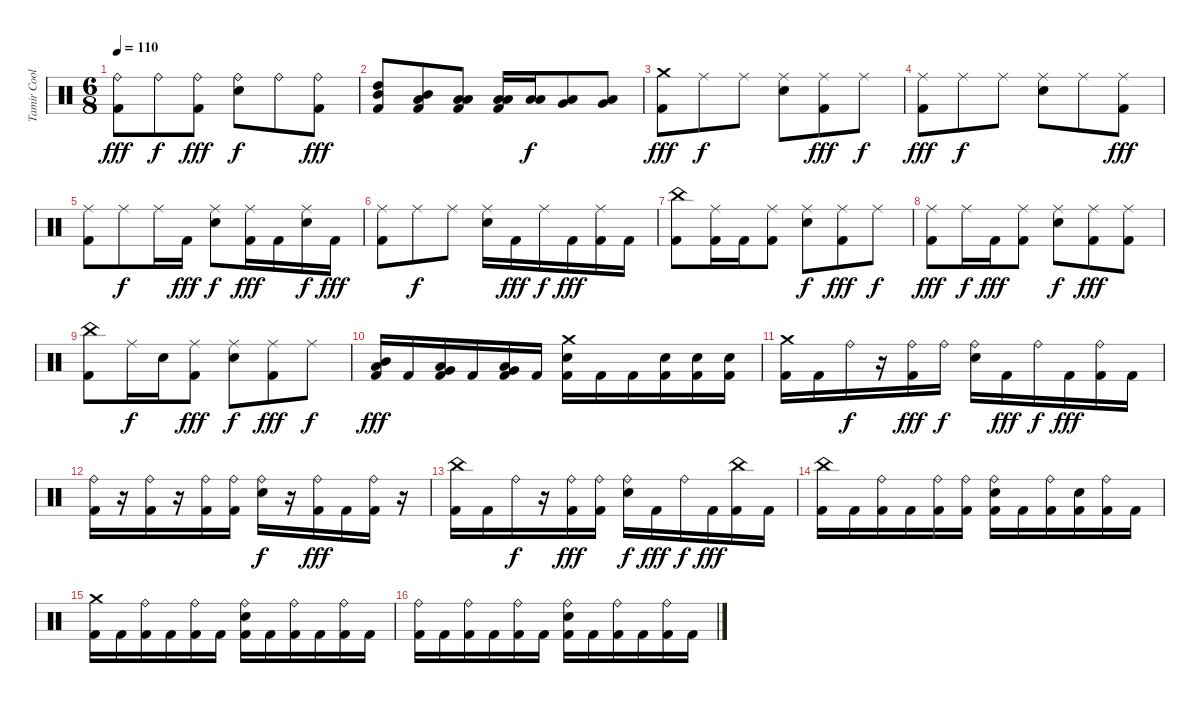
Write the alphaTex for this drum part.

\track ("Tamir Coolberg" "Tamir Cool") {instrument percussion}
\staff {score}
\articulation defaults
\ts (6 8)
\tempo 110
\clef neutral
\ks c
("Ride (bell)" "Kick (hit) 2").8{dy fff} "Ride (bell)".8{dy f} ("Ride (bell)" "Kick (hit) 2").8{dy fff} ("Ride (bell)" "Electric Snare (hit)").8{dy f} "Ride (bell)".8 ("Ride (bell)" "Kick (hit) 2").8{dy fff} |
("High Tom (hit)" "Mid Tom (hit)" "Kick (hit) 2").8 ("Mid Tom (hit)" "Low Tom (hit)" "Kick (hit) 2").8 ("Low Tom (hit)" "Low Tom (hit)" "Kick (hit) 2").8 ("Low Tom (hit)" "Low Tom (hit)" "Kick (hit) 2").16 ("Low Tom (hit)" "Low Tom (hit)").16{dy f} ("Very Low Tom (hit)" "Low Tom (hit)").8 ("Low Floor Tom (hit)" "Very Low Tom (hit)").8 |
("Crash medium (hit)" "Kick (hit) 2").8{dy fff} "Ride (middle)".8{dy f} "Ride (middle)".8 ("Ride (middle)" "Electric Snare (hit)").8 ("Ride (middle)" "Kick (hit) 2").8{dy fff} "Ride (middle)".8{dy f} |
("Ride (middle)" "Kick (hit) 2").8{dy fff} "Ride (middle)".8{dy f} "Ride (middle)".8 ("Ride (middle)" "Electric Snare (hit)").8 "Ride (middle)".8 ("Ride (middle)" "Kick (hit) 2").8{dy fff} |
("Ride (middle)" "Kick (hit) 2").8 "Ride (middle)".8{dy f} "Ride (middle)".16 "Kick (hit) 2".16{dy fff} ("Ride (middle)" "Electric Snare (hit)").8{dy f} ("Ride (middle)" "Kick (hit) 2").16{dy fff} "Kick (hit) 2".16 ("Ride (middle)" "Electric Snare (hit)").16{dy f} "Kick (hit) 2".16{dy fff} |
("Ride (middle)" "Kick (hit) 2").8 "Ride (middle)".8{dy f} "Ride (middle)".8 ("Ride (middle)" "Electric Snare (hit)").16 "Kick (hit) 2".16{dy fff} "Ride (middle)".16{dy f} "Kick (hit) 2".16{dy fff} ("Ride (middle)" "Kick (hit) 2").16 "Kick (hit) 2".16 |
("China (hit)" "Kick (hit) 2").8 ("Ride (middle)" "Kick (hit) 2").16 "Kick (hit) 2".16 ("Ride (middle)" "Kick (hit) 2").8 ("Ride (middle)" "Electric Snare (hit)").8{dy f} ("Ride (middle)" "Kick (hit) 2").8{dy fff} "Ride (middle)".8{dy f} |
("Ride (middle)" "Kick (hit) 2").8{dy fff} "Ride (middle)".16{dy f} "Kick (hit) 2".16{dy fff} ("Ride (middle)" "Kick (hit) 2").8 ("Ride (middle)" "Electric Snare (hit)").8{dy f} ("Ride (middle)" "Kick (hit) 2").8{dy fff} ("Ride (middle)" "Kick (hit) 2").8 |
("China (hit)" "Kick (hit) 2").8 "Ride (middle)".16{dy f} "Electric Snare (hit)".16 ("Ride (middle)" "Kick (hit) 2").8{dy fff} ("Ride (middle)" "Electric Snare (hit)").8{dy f} ("Ride (middle)" "Kick (hit) 2").8{dy fff} "Ride (middle)".8{dy f} |
("Mid Tom (hit)" "Low Tom (hit)" "Kick (hit) 2").16{dy fff} "Kick (hit) 2".16 ("Low Tom (hit)" "Very Low Tom (hit)" "Kick (hit) 2").16 "Kick (hit) 2".16 ("Low Floor Tom (hit)" "Very Low Tom (hit)" "Kick (hit) 2").16 "Kick (hit) 2".16 ("Crash medium (hit)" "Electric Snare (hit)" "Kick (hit) 2").16 "Kick (hit) 2".16 "Kick (hit) 2".16 ("Electric Snare (hit)" "Kick (hit) 2").16 ("Electric Snare (hit)" "Kick (hit) 2").16 ("Electric Snare (hit)" "Kick (hit) 2").16 |
("Crash medium (hit)" "Kick (hit) 2").16 "Kick (hit) 2".16 "Ride (bell)".16{dy f} r.16 ("Ride (bell)" "Kick (hit) 2").16{dy fff} "Ride (bell)".16{dy f} ("Ride (bell)" "Electric Snare (hit)").16 "Kick (hit) 2".16{dy fff} "Ride (bell)".16{dy f} "Kick (hit) 2".16{dy fff} ("Ride (bell)" "Kick (hit) 2").16 "Kick (hit) 2".16 |
("Ride (bell)" "Kick (hit) 2").16 r.16 ("Ride (bell)" "Kick (hit) 2").16 r.16 ("Ride (bell)" "Kick (hit) 2").16 ("Ride (bell)" "Kick (hit) 2").16 ("Ride (bell)" "Electric Snare (hit)").16{dy f} r.16 ("Ride (bell)" "Kick (hit) 2").16{dy fff} "Kick (hit) 2".16 ("Ride (bell)" "Kick (hit) 2").16 r.16 |
("China (hit)" "Kick (hit) 2").16 "Kick (hit) 2".16 "Ride (bell)".16{dy f} r.16 ("Ride (bell)" "Kick (hit) 2").16{dy fff} ("Ride (bell)" "Kick (hit) 2").16 ("Ride (bell)" "Electric Snare (hit)").16{dy f} "Kick (hit) 2".16{dy fff} "Ride (bell)".16{dy f} "Kick (hit) 2".16{dy fff} ("China (hit)" "Kick (hit) 2").16 "Kick (hit) 2".16 |
("China (hit)" "Kick (hit) 2").16 "Kick (hit) 2".16 ("Ride (bell)" "Kick (hit) 2").16 "Kick (hit) 2".16 ("Ride (bell)" "Kick (hit) 2").16 ("Ride (bell)" "Kick (hit) 2").16 ("Ride (bell)" "Electric Snare (hit)" "Kick (hit) 2").16 "Kick (hit) 2".16 ("Ride (bell)" "Kick (hit) 2").16 ("Electric Snare (hit)" "Kick (hit) 2").16 ("Ride (bell)" "Kick (hit) 2").16 "Kick (hit) 2".16 |
("Crash medium (hit)" "Kick (hit) 2").16 "Kick (hit) 2".16 ("Ride (bell)" "Kick (hit) 2").16 "Kick (hit) 2".16 ("Ride (bell)" "Kick (hit) 2").16 "Kick (hit) 2".16 ("Ride (bell)" "Electric Snare (hit)" "Kick (hit) 2").16 "Kick (hit) 2".16 ("Ride (bell)" "Kick (hit) 2").16 "Kick (hit) 2".16 ("Ride (bell)" "Kick (hit) 2").16 "Kick (hit) 2".16 |
("Ride (bell)" "Kick (hit) 2").16 "Kick (hit) 2".16 ("Ride (bell)" "Kick (hit) 2").16 "Kick (hit) 2".16 ("Ride (bell)" "Kick (hit) 2").16 "Kick (hit) 2".16 ("Ride (bell)" "Electric Snare (hit)" "Kick (hit) 2").16 "Kick (hit) 2".16 ("Ride (bell)" "Kick (hit) 2").16 "Kick (hit) 2".16 ("Ride (bell)" "Kick (hit) 2").16 "Kick (hit) 2".16
